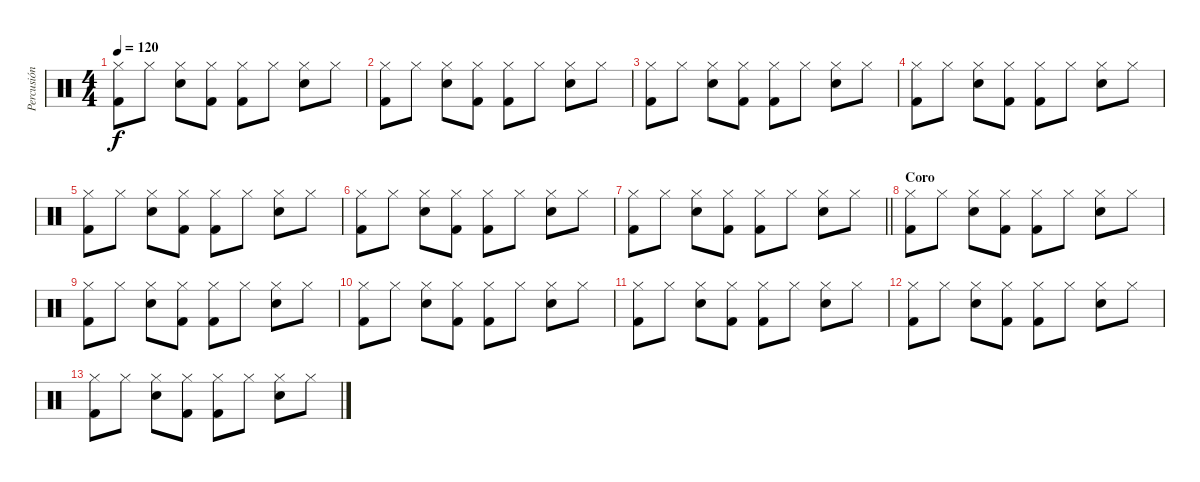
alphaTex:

\track ("Percusión" "Percusión") {instrument percussion}
\staff {score}
\articulation defaults
\ts (4 4)
\tempo 120
\clef neutral
\ks c
("Hi-Hat (closed)" "Kick (hit) 2").8{dy f} "Hi-Hat (closed)".8 ("Hi-Hat (closed)" "Snare (hit) 2").8 ("Hi-Hat (closed)" "Kick (hit) 2").8 ("Hi-Hat (closed)" "Kick (hit) 2").8 "Hi-Hat (closed)".8 ("Hi-Hat (closed)" "Snare (hit) 2").8 "Hi-Hat (closed)".8 |
("Hi-Hat (closed)" "Kick (hit) 2").8 "Hi-Hat (closed)".8 ("Hi-Hat (closed)" "Snare (hit) 2").8 ("Hi-Hat (closed)" "Kick (hit) 2").8 ("Hi-Hat (closed)" "Kick (hit) 2").8 "Hi-Hat (closed)".8 ("Hi-Hat (closed)" "Snare (hit) 2").8 "Hi-Hat (closed)".8 |
("Hi-Hat (closed)" "Kick (hit) 2").8 "Hi-Hat (closed)".8 ("Hi-Hat (closed)" "Snare (hit) 2").8 ("Hi-Hat (closed)" "Kick (hit) 2").8 ("Hi-Hat (closed)" "Kick (hit) 2").8 "Hi-Hat (closed)".8 ("Hi-Hat (closed)" "Snare (hit) 2").8 "Hi-Hat (closed)".8 |
("Hi-Hat (closed)" "Kick (hit) 2").8 "Hi-Hat (closed)".8 ("Hi-Hat (closed)" "Snare (hit) 2").8 ("Hi-Hat (closed)" "Kick (hit) 2").8 ("Hi-Hat (closed)" "Kick (hit) 2").8 "Hi-Hat (closed)".8 ("Hi-Hat (closed)" "Snare (hit) 2").8 "Hi-Hat (closed)".8 |
("Hi-Hat (closed)" "Kick (hit) 2").8 "Hi-Hat (closed)".8 ("Hi-Hat (closed)" "Snare (hit) 2").8 ("Hi-Hat (closed)" "Kick (hit) 2").8 ("Hi-Hat (closed)" "Kick (hit) 2").8 "Hi-Hat (closed)".8 ("Hi-Hat (closed)" "Snare (hit) 2").8 "Hi-Hat (closed)".8 |
("Hi-Hat (closed)" "Kick (hit) 2").8 "Hi-Hat (closed)".8 ("Hi-Hat (closed)" "Snare (hit) 2").8 ("Hi-Hat (closed)" "Kick (hit) 2").8 ("Hi-Hat (closed)" "Kick (hit) 2").8 "Hi-Hat (closed)".8 ("Hi-Hat (closed)" "Snare (hit) 2").8 "Hi-Hat (closed)".8 |
\barLineRight lightlight
("Hi-Hat (closed)" "Kick (hit) 2").8 "Hi-Hat (closed)".8 ("Hi-Hat (closed)" "Snare (hit) 2").8 ("Hi-Hat (closed)" "Kick (hit) 2").8 ("Hi-Hat (closed)" "Kick (hit) 2").8 "Hi-Hat (closed)".8 ("Hi-Hat (closed)" "Snare (hit) 2").8 "Hi-Hat (closed)".8 |
\section ("" "Coro")
("Hi-Hat (closed)" "Kick (hit) 2").8 "Hi-Hat (closed)".8 ("Hi-Hat (closed)" "Snare (hit) 2").8 ("Hi-Hat (closed)" "Kick (hit) 2").8 ("Hi-Hat (closed)" "Kick (hit) 2").8 "Hi-Hat (closed)".8 ("Hi-Hat (closed)" "Snare (hit) 2").8 "Hi-Hat (closed)".8 |
("Hi-Hat (closed)" "Kick (hit) 2").8 "Hi-Hat (closed)".8 ("Hi-Hat (closed)" "Snare (hit) 2").8 ("Hi-Hat (closed)" "Kick (hit) 2").8 ("Hi-Hat (closed)" "Kick (hit) 2").8 "Hi-Hat (closed)".8 ("Hi-Hat (closed)" "Snare (hit) 2").8 "Hi-Hat (closed)".8 |
("Hi-Hat (closed)" "Kick (hit) 2").8 "Hi-Hat (closed)".8 ("Hi-Hat (closed)" "Snare (hit) 2").8 ("Hi-Hat (closed)" "Kick (hit) 2").8 ("Hi-Hat (closed)" "Kick (hit) 2").8 "Hi-Hat (closed)".8 ("Hi-Hat (closed)" "Snare (hit) 2").8 "Hi-Hat (closed)".8 |
("Hi-Hat (closed)" "Kick (hit) 2").8 "Hi-Hat (closed)".8 ("Hi-Hat (closed)" "Snare (hit) 2").8 ("Hi-Hat (closed)" "Kick (hit) 2").8 ("Hi-Hat (closed)" "Kick (hit) 2").8 "Hi-Hat (closed)".8 ("Hi-Hat (closed)" "Snare (hit) 2").8 "Hi-Hat (closed)".8 |
("Hi-Hat (closed)" "Kick (hit) 2").8 "Hi-Hat (closed)".8 ("Hi-Hat (closed)" "Snare (hit) 2").8 ("Hi-Hat (closed)" "Kick (hit) 2").8 ("Hi-Hat (closed)" "Kick (hit) 2").8 "Hi-Hat (closed)".8 ("Hi-Hat (closed)" "Snare (hit) 2").8 "Hi-Hat (closed)".8 |
("Hi-Hat (closed)" "Kick (hit) 2").8 "Hi-Hat (closed)".8 ("Hi-Hat (closed)" "Snare (hit) 2").8 ("Hi-Hat (closed)" "Kick (hit) 2").8 ("Hi-Hat (closed)" "Kick (hit) 2").8 "Hi-Hat (closed)".8 ("Hi-Hat (closed)" "Snare (hit) 2").8 "Hi-Hat (closed)".8
